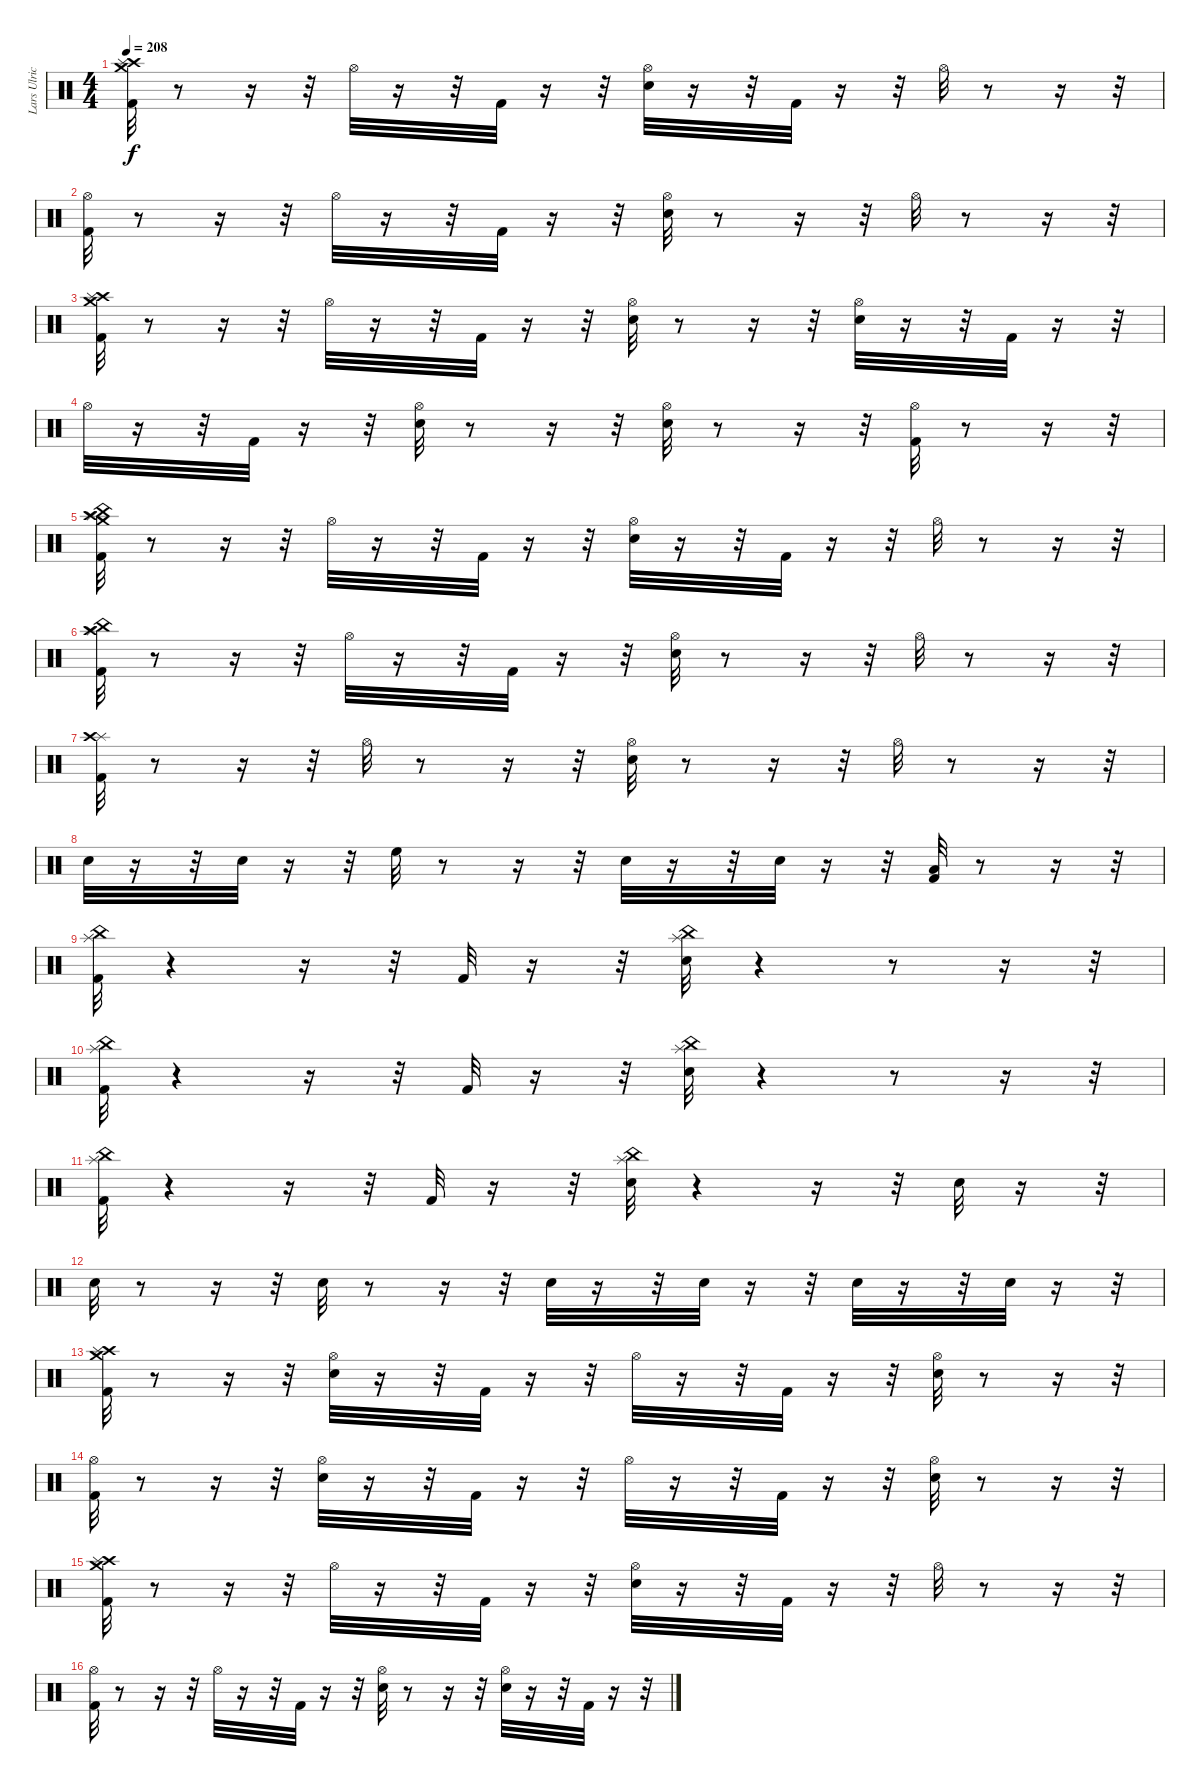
\track ("Lars Ulrich (Drums)" "Lars Ulric") {instrument percussion}
\staff {score}
\articulation defaults
\ts (4 4)
\tempo 208
\clef neutral
\ks c
("Crash high (hit)" "Crash medium (hit)" "Splash (hit)" "Kick (hit) 2").32{dy f} r.8 r.16 r.32 "Hi-Hat (open)".32 r.16 r.32 "Kick (hit) 2".32 r.16 r.32 ("Hi-Hat (open)" "Snare (hit) 2").32 r.16 r.32 "Kick (hit) 2".32 r.16 r.32 "Hi-Hat (open)".32 r.8 r.16 r.32 |
("Hi-Hat (open)" "Kick (hit) 2").32 r.8 r.16 r.32 "Hi-Hat (open)".32 r.16 r.32 "Kick (hit) 2".32 r.16 r.32 ("Hi-Hat (open)" "Snare (hit) 2").32 r.8 r.16 r.32 "Hi-Hat (open)".32 r.8 r.16 r.32 |
("Crash high (hit)" "Splash (hit)" "Crash medium (hit)" "Kick (hit) 2").32 r.8 r.16 r.32 "Hi-Hat (open)".32 r.16 r.32 "Kick (hit) 2".32 r.16 r.32 ("Hi-Hat (open)" "Snare (hit) 2").32 r.8 r.16 r.32 ("Hi-Hat (open)" "Snare (hit) 2").32 r.16 r.32 "Kick (hit) 2".32 r.16 r.32 |
"Hi-Hat (open)".32 r.16 r.32 "Kick (hit) 2".32 r.16 r.32 ("Hi-Hat (open)" "Snare (hit) 2").32 r.8 r.16 r.32 ("Hi-Hat (open)" "Snare (hit) 2").32 r.8 r.16 r.32 ("Hi-Hat (open)" "Kick (hit) 2").32 r.8 r.16 r.32 |
("China (hit)" "Kick (hit) 2" "Crash high (hit)" "Splash (hit)" "Crash medium (hit)").32 r.8 r.16 r.32 "Hi-Hat (open)".32 r.16 r.32 "Kick (hit) 2".32 r.16 r.32 ("Hi-Hat (open)" "Snare (hit) 2").32 r.16 r.32 "Kick (hit) 2".32 r.16 r.32 "Hi-Hat (open)".32 r.8 r.16 r.32 |
("China (hit)" "Splash (hit)" "Crash high (hit)" "Kick (hit) 2").32 r.8 r.16 r.32 "Hi-Hat (open)".32 r.16 r.32 "Kick (hit) 2".32 r.16 r.32 ("Hi-Hat (open)" "Snare (hit) 2").32 r.8 r.16 r.32 "Hi-Hat (open)".32 r.8 r.16 r.32 |
("Kick (hit) 2" "Splash (hit)" "Crash high (hit)").32 r.8 r.16 r.32 "Hi-Hat (open)".32 r.8 r.16 r.32 ("Hi-Hat (open)" "Snare (hit) 2").32 r.8 r.16 r.32 "Hi-Hat (open)".32 r.8 r.16 r.32 |
"Snare (hit) 2".32 r.16 r.32 "Snare (hit) 2".32 r.16 r.32 "High Floor Tom (hit)".32 r.8 r.16 r.32 "Snare (hit) 2".32 r.16 r.32 "Snare (hit) 2".32 r.16 r.32 ("Low Floor Tom (hit)" "Kick (hit) 2").32 r.8 r.16 r.32 |
("Kick (hit) 2" "China (hit)" "Splash (hit)").32 r.4 r.16 r.32 "Kick (hit) 2".32 r.16 r.32 ("Snare (hit) 2" "China (hit)" "Splash (hit)").32 r.4 r.8 r.16 r.32 |
("Kick (hit) 2" "China (hit)" "Splash (hit)").32 r.4 r.16 r.32 "Kick (hit) 2".32 r.16 r.32 ("Snare (hit) 2" "China (hit)" "Splash (hit)").32 r.4 r.8 r.16 r.32 |
("Kick (hit) 2" "China (hit)" "Splash (hit)").32 r.4 r.16 r.32 "Kick (hit) 2".32 r.16 r.32 ("Snare (hit) 2" "China (hit)" "Splash (hit)").32 r.4 r.16 r.32 "Snare (hit) 2".32 r.16 r.32 |
"Snare (hit) 2".32 r.8 r.16 r.32 "Snare (hit) 2".32 r.8 r.16 r.32 "Snare (hit) 2".32 r.16 r.32 "Snare (hit) 2".32 r.16 r.32 "Snare (hit) 2".32 r.16 r.32 "Snare (hit) 2".32 r.16 r.32 |
("Kick (hit) 2" "Crash high (hit)" "Crash medium (hit)" "Splash (hit)").32 r.8 r.16 r.32 ("Snare (hit) 2" "Hi-Hat (open)").32 r.16 r.32 "Kick (hit) 2".32 r.16 r.32 "Hi-Hat (open)".32 r.16 r.32 "Kick (hit) 2".32 r.16 r.32 ("Snare (hit) 2" "Hi-Hat (open)").32 r.8 r.16 r.32 |
("Kick (hit) 2" "Hi-Hat (open)").32 r.8 r.16 r.32 ("Snare (hit) 2" "Hi-Hat (open)").32 r.16 r.32 "Kick (hit) 2".32 r.16 r.32 "Hi-Hat (open)".32 r.16 r.32 "Kick (hit) 2".32 r.16 r.32 ("Snare (hit) 2" "Hi-Hat (open)").32 r.8 r.16 r.32 |
("Crash high (hit)" "Crash medium (hit)" "Splash (hit)" "Kick (hit) 2").32 r.8 r.16 r.32 "Hi-Hat (open)".32 r.16 r.32 "Kick (hit) 2".32 r.16 r.32 ("Hi-Hat (open)" "Snare (hit) 2").32 r.16 r.32 "Kick (hit) 2".32 r.16 r.32 "Hi-Hat (open)".32 r.8 r.16 r.32 |
("Hi-Hat (open)" "Kick (hit) 2").32 r.8 r.16 r.32 "Hi-Hat (open)".32 r.16 r.32 "Kick (hit) 2".32 r.16 r.32 ("Hi-Hat (open)" "Snare (hit) 2").32 r.8 r.16 r.32 ("Snare (hit) 2" "Hi-Hat (open)").32 r.16 r.32 "Kick (hit) 2".32 r.16 r.32
